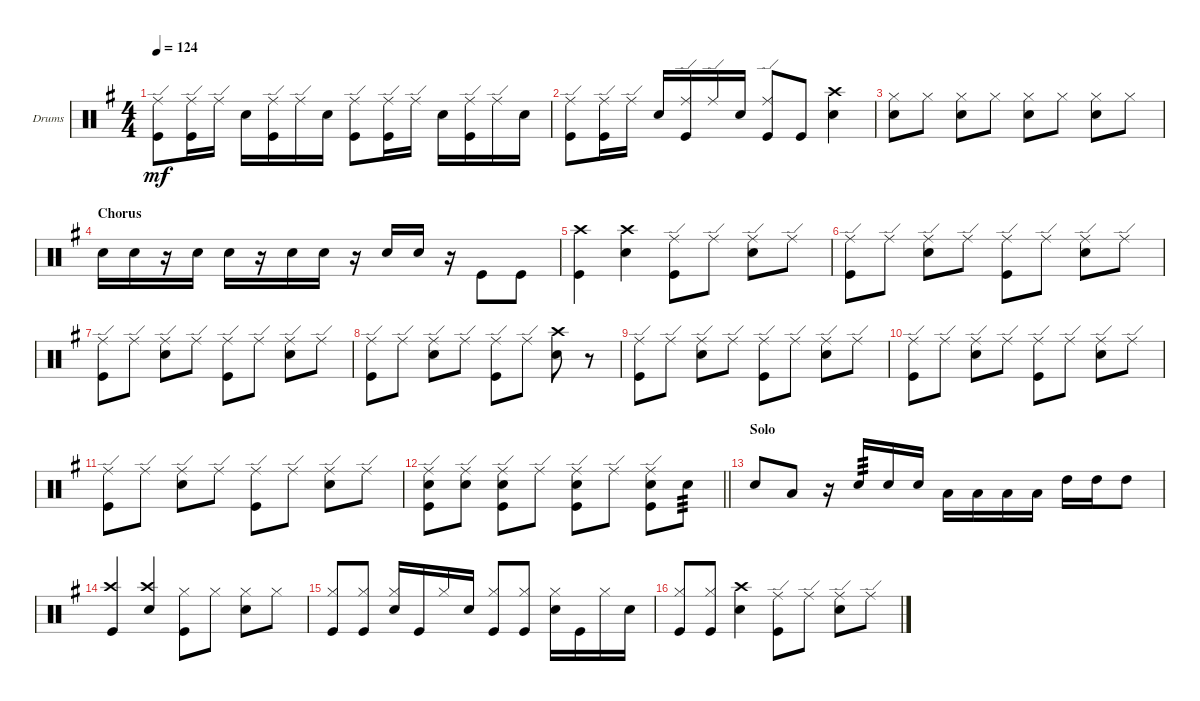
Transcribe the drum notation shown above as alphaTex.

\defaultSystemsLayout 4
\bracketExtendMode groupsimilarinstruments
\firstSystemTrackNameOrientation horizontal
\otherSystemsTrackNameOrientation horizontal
\track ("PETER CRISS" "Drums") {instrument percussion}
\staff {score}
\articulation defaults
\ts (4 4)
\tempo 124
\clef neutral
\scale
0.333333
\ks g
("Ride (edge)" "Kick (hit)").8{dy mf} ("Ride (edge)" "Kick (hit)").16 "Ride (edge)".16 "Snare (hit) 2".16 ("Kick (hit)" "Ride (edge)").16 "Ride (edge)".16 "Snare (hit) 2".16 ("Ride (edge)" "Kick (hit)").8 ("Ride (edge)" "Kick (hit)").16 "Ride (edge)".16 "Snare (hit) 2".16 ("Kick (hit)" "Ride (edge)").16 "Ride (edge)".16 "Snare (hit) 2".16 |
\scale
0.333333 ("Ride (edge)" "Kick (hit)").8 ("Ride (edge)" "Kick (hit)").16 "Ride (edge)".16 "Snare (hit) 2".16 ("Kick (hit)" "Ride (edge)").16 "Ride (edge)".16 "Snare (hit) 2".16 ("Ride (edge)" "Kick (hit)").8{beam invert} "Kick (hit)".8 ("Crash high (hit)" "Snare (hit) 2").4 |
\scale
0.333333 ("Hi-Hat (closed)" "Snare (hit) 2").8 "Hi-Hat (closed)".8 ("Hi-Hat (closed)" "Snare (hit) 2").8 "Hi-Hat (closed)".8 ("Hi-Hat (closed)" "Snare (hit) 2").8 "Hi-Hat (closed)".8 ("Hi-Hat (closed)" "Snare (hit) 2").8 "Hi-Hat (closed)".8 |
\section ("" "Chorus")
\scale
0.333333 "Snare (hit) 2".16 "Snare (hit) 2".16 r.16 "Snare (hit) 2".16 "Snare (hit) 2".16 r.16 "Snare (hit) 2".16 "Snare (hit) 2".16 r.16 "Snare (hit) 2".16 "Snare (hit) 2".16 r.16 "Kick (hit)".8{beam invert} "Kick (hit)".8 |
\scale
0.333333 ("Crash high (hit)" "Kick (hit)").4 ("Snare (hit) 2" "Crash high (hit)").4 ("Ride (edge)" "Kick (hit)").8 "Ride (edge)".8 ("Ride (edge)" "Snare (hit) 2").8 "Ride (edge)".8 |
\scale
0.333333 ("Kick (hit)" "Ride (edge)").8 "Ride (edge)".8 ("Ride (edge)" "Snare (hit) 2").8 "Ride (edge)".8 ("Kick (hit)" "Ride (edge)").8 "Ride (edge)".8 ("Ride (edge)" "Snare (hit) 2").8 "Ride (edge)".8 |
\scale
0.333333 ("Kick (hit)" "Ride (edge)").8 "Ride (edge)".8 ("Ride (edge)" "Snare (hit) 2").8 "Ride (edge)".8 ("Kick (hit)" "Ride (edge)").8 "Ride (edge)".8 ("Ride (edge)" "Snare (hit) 2").8 "Ride (edge)".8 |
\scale
0.333333 ("Kick (hit)" "Ride (edge)").8 "Ride (edge)".8 ("Ride (edge)" "Snare (hit) 2").8 "Ride (edge)".8 ("Kick (hit)" "Ride (edge)").8 "Ride (edge)".8 ("Snare (hit) 2" "Crash high (hit)").8 r.8 |
\scale
0.333333 ("Kick (hit)" "Ride (edge)").8 "Ride (edge)".8 ("Ride (edge)" "Snare (hit) 2").8 "Ride (edge)".8 ("Kick (hit)" "Ride (edge)").8 "Ride (edge)".8 ("Ride (edge)" "Snare (hit) 2").8 "Ride (edge)".8 |
\scale
0.333333 ("Kick (hit)" "Ride (edge)").8 "Ride (edge)".8 ("Ride (edge)" "Snare (hit) 2").8 "Ride (edge)".8 ("Kick (hit)" "Ride (edge)").8 "Ride (edge)".8 ("Ride (edge)" "Snare (hit) 2").8 "Ride (edge)".8 |
\scale
0.333333 ("Kick (hit)" "Ride (edge)").8 "Ride (edge)".8 ("Ride (edge)" "Snare (hit) 2").8 "Ride (edge)".8 ("Kick (hit)" "Ride (edge)").8 "Ride (edge)".8 ("Ride (edge)" "Snare (hit) 2").8 "Ride (edge)".8 |
\scale
0.333333
\barLineRight lightlight
("Kick (hit)" "Ride (edge)" "Snare (hit) 2").8 ("Ride (edge)" "Snare (hit) 2").8 ("Ride (edge)" "Snare (hit) 2" "Kick (hit)").8 "Ride (edge)".8 ("Kick (hit)" "Ride (edge)" "Snare (hit) 2").8 "Ride (edge)".8 ("Ride (edge)" "Snare (hit) 2" "Kick (hit)").8 "Snare (hit) 2".8{tp 3} |
\section ("" "Solo")
\scale
0.333333 "Snare (hit) 2".8{beam invert} "Low Tom (hit)".8 r.16 "Snare (hit) 2".16{tp 3} "Snare (hit) 2".16 "Snare (hit) 2".16 "Low Tom (hit)".16{beam invert} "Low Tom (hit)".16 "Low Tom (hit)".16 "Low Tom (hit)".16 "High Tom (hit)".16 "High Tom (hit)".16 "High Tom (hit)".8 |
\scale
0.333333 ("Crash high (hit)" "Kick (hit)").4 ("Crash high (hit)" "Snare (hit) 2").4{beam invert} ("Hi-Hat (closed)" "Kick (hit)").8 "Hi-Hat (closed)".8 ("Hi-Hat (closed)" "Snare (hit) 2").8 "Hi-Hat (closed)".8 |
\scale
0.333333 ("Hi-Hat (closed)" "Kick (hit)").8{beam invert} ("Kick (hit)" "Hi-Hat (closed)").8 ("Snare (hit) 2" "Hi-Hat (closed)").16 "Kick (hit)".16 "Hi-Hat (closed)".16 "Snare (hit) 2".16 ("Hi-Hat (closed)" "Kick (hit)").8{beam invert} ("Kick (hit)" "Hi-Hat (closed)").8 ("Snare (hit) 2" "Hi-Hat (closed)").16 "Kick (hit)".16 "Hi-Hat (closed)".16 "Snare (hit) 2".16 |
\scale
0.333333 ("Hi-Hat (closed)" "Kick (hit)").8{beam invert} ("Kick (hit)" "Hi-Hat (closed)").8 ("Snare (hit) 2" "Crash high (hit)").4 ("Kick (hit)" "Ride (edge)").8 "Ride (edge)".8 ("Ride (edge)" "Snare (hit) 2").8 "Ride (edge)".8
